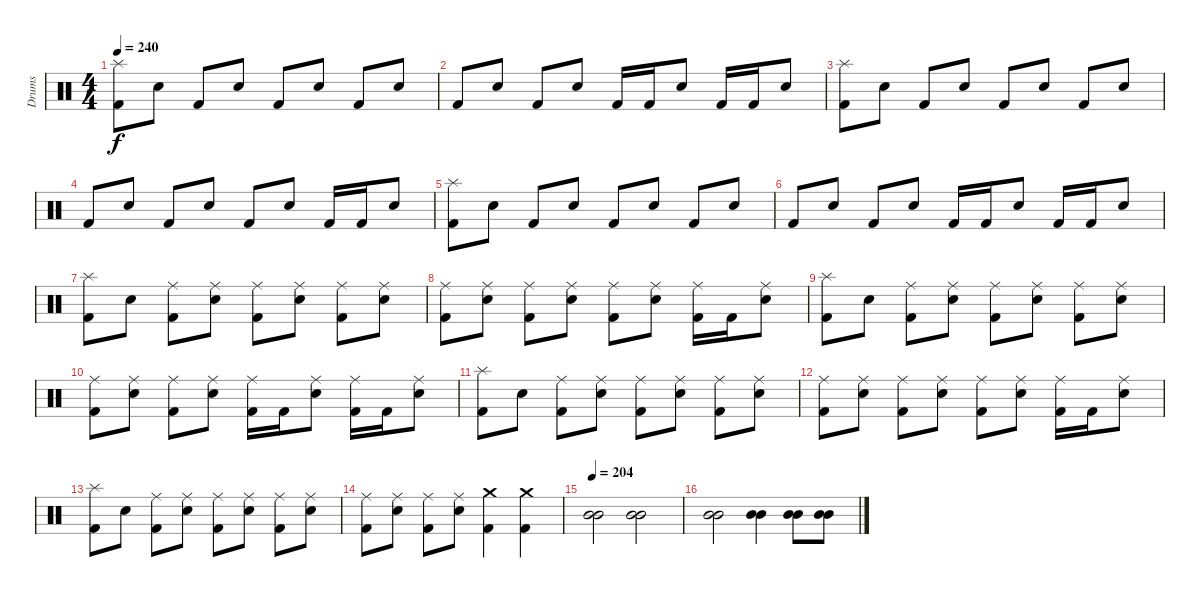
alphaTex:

\track ("Drums" "Drums") {instrument percussion}
\staff {score}
\articulation defaults
\ts (4 4)
\tempo 240
\clef neutral
\ks c
("Splash (hit)" "Kick (hit) 2").8{dy f} "Electric Snare (hit)".8 "Kick (hit) 2".8 "Electric Snare (hit)".8 "Kick (hit) 2".8 "Electric Snare (hit)".8 "Kick (hit) 2".8 "Electric Snare (hit)".8 |
"Kick (hit) 2".8 "Electric Snare (hit)".8 "Kick (hit) 2".8 "Electric Snare (hit)".8 "Kick (hit) 2".16 "Kick (hit) 2".16 "Electric Snare (hit)".8 "Kick (hit) 2".16 "Kick (hit) 2".16 "Electric Snare (hit)".8 |
("Splash (hit)" "Kick (hit) 2").8 "Electric Snare (hit)".8 "Kick (hit) 2".8 "Electric Snare (hit)".8 "Kick (hit) 2".8 "Electric Snare (hit)".8 "Kick (hit) 2".8 "Electric Snare (hit)".8 |
"Kick (hit) 2".8 "Electric Snare (hit)".8 "Kick (hit) 2".8 "Electric Snare (hit)".8 "Kick (hit) 2".8 "Electric Snare (hit)".8 "Kick (hit) 2".16 "Kick (hit) 2".16 "Electric Snare (hit)".8 |
("Splash (hit)" "Kick (hit) 2").8 "Electric Snare (hit)".8 "Kick (hit) 2".8 "Electric Snare (hit)".8 "Kick (hit) 2".8 "Electric Snare (hit)".8 "Kick (hit) 2".8 "Electric Snare (hit)".8 |
"Kick (hit) 2".8 "Electric Snare (hit)".8 "Kick (hit) 2".8 "Electric Snare (hit)".8 "Kick (hit) 2".16 "Kick (hit) 2".16 "Electric Snare (hit)".8 "Kick (hit) 2".16 "Kick (hit) 2".16 "Electric Snare (hit)".8 |
("Splash (hit)" "Kick (hit) 2").8 "Electric Snare (hit)".8 ("Ride (middle)" "Kick (hit) 2").8 ("Ride (middle)" "Electric Snare (hit)").8 ("Ride (middle)" "Kick (hit) 2").8 ("Ride (middle)" "Electric Snare (hit)").8 ("Ride (middle)" "Kick (hit) 2").8 ("Ride (middle)" "Electric Snare (hit)").8 |
("Ride (middle)" "Kick (hit) 2").8 ("Ride (middle)" "Electric Snare (hit)").8 ("Ride (middle)" "Kick (hit) 2").8 ("Ride (middle)" "Electric Snare (hit)").8 ("Ride (middle)" "Kick (hit) 2").8 ("Ride (middle)" "Electric Snare (hit)").8 ("Ride (middle)" "Kick (hit) 2").16 "Kick (hit) 2".16 ("Ride (middle)" "Electric Snare (hit)").8 |
("Splash (hit)" "Kick (hit) 2").8 "Electric Snare (hit)".8 ("Ride (middle)" "Kick (hit) 2").8 ("Ride (middle)" "Electric Snare (hit)").8 ("Ride (middle)" "Kick (hit) 2").8 ("Ride (middle)" "Electric Snare (hit)").8 ("Ride (middle)" "Kick (hit) 2").8 ("Ride (middle)" "Electric Snare (hit)").8 |
("Ride (middle)" "Kick (hit) 2").8 ("Ride (middle)" "Electric Snare (hit)").8 ("Ride (middle)" "Kick (hit) 2").8 ("Ride (middle)" "Electric Snare (hit)").8 ("Ride (middle)" "Kick (hit) 2").16 "Kick (hit) 2".16 ("Ride (middle)" "Electric Snare (hit)").8 ("Ride (middle)" "Kick (hit) 2").16 "Kick (hit) 2".16 ("Ride (middle)" "Electric Snare (hit)").8 |
("Splash (hit)" "Kick (hit) 2").8 "Electric Snare (hit)".8 ("Ride (middle)" "Kick (hit) 2").8 ("Ride (middle)" "Electric Snare (hit)").8 ("Ride (middle)" "Kick (hit) 2").8 ("Ride (middle)" "Electric Snare (hit)").8 ("Ride (middle)" "Kick (hit) 2").8 ("Ride (middle)" "Electric Snare (hit)").8 |
("Ride (middle)" "Kick (hit) 2").8 ("Ride (middle)" "Electric Snare (hit)").8 ("Ride (middle)" "Kick (hit) 2").8 ("Ride (middle)" "Electric Snare (hit)").8 ("Ride (middle)" "Kick (hit) 2").8 ("Ride (middle)" "Electric Snare (hit)").8 ("Ride (middle)" "Kick (hit) 2").16 "Kick (hit) 2".16 ("Ride (middle)" "Electric Snare (hit)").8 |
("Splash (hit)" "Kick (hit) 2").8 "Electric Snare (hit)".8 ("Ride (middle)" "Kick (hit) 2").8 ("Ride (middle)" "Electric Snare (hit)").8 ("Ride (middle)" "Kick (hit) 2").8 ("Ride (middle)" "Electric Snare (hit)").8 ("Ride (middle)" "Kick (hit) 2").8 ("Ride (middle)" "Electric Snare (hit)").8 |
("Ride (middle)" "Kick (hit) 2").8 ("Ride (middle)" "Electric Snare (hit)").8 ("Ride (middle)" "Kick (hit) 2").8 ("Ride (middle)" "Electric Snare (hit)").8 ("Crash medium (hit)" "Kick (hit) 2").4 ("Crash medium (hit)" "Kick (hit) 2").4 |
\tempo 204
("Mid Tom (hit)" "Mid Tom (hit)").2 ("Mid Tom (hit)" "Mid Tom (hit)").2 |
("Mid Tom (hit)" "Mid Tom (hit)").2 ("Mid Tom (hit)" "Mid Tom (hit)").4 ("Mid Tom (hit)" "Mid Tom (hit)").8 ("Mid Tom (hit)" "Mid Tom (hit)").8
